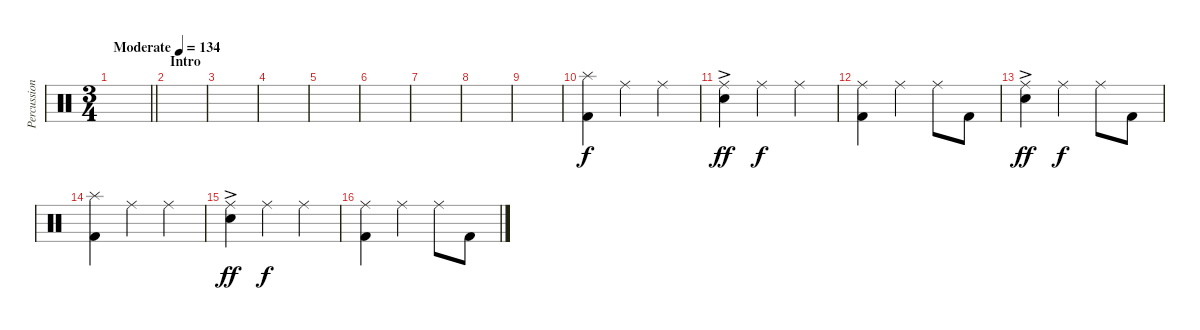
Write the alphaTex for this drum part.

\track ("Percussion" "Percussion") {instrument percussion}
\staff {score}
\articulation defaults
\ts (3 4)
\tempo (134 "Moderate")
\clef neutral
\barLineRight lightlight
\ks c
|
\section ("" "Intro")
|
|
|
|
|
|
|
|
("Splash (hit)" "Kick (hit) 2").4 "Ride (middle)".4 "Ride (middle)".4 |
("Ride (middle)" "Electric Snare (hit)"{ac}).4{dy ff} "Ride (middle)".4{dy f} "Ride (middle)".4 |
("Ride (middle)" "Kick (hit) 2").4 "Ride (middle)".4 "Ride (middle)".8 "Kick (hit) 2".8 |
("Ride (middle)" "Electric Snare (hit)"{ac}).4{dy ff} "Ride (middle)".4{dy f} "Ride (middle)".8 "Kick (hit) 2".8 |
("Splash (hit)" "Kick (hit) 2").4 "Ride (middle)".4 "Ride (middle)".4 |
("Ride (middle)" "Electric Snare (hit)"{ac}).4{dy ff} "Ride (middle)".4{dy f} "Ride (middle)".4 |
("Ride (middle)" "Kick (hit) 2").4 "Ride (middle)".4 "Ride (middle)".8 "Kick (hit) 2".8
